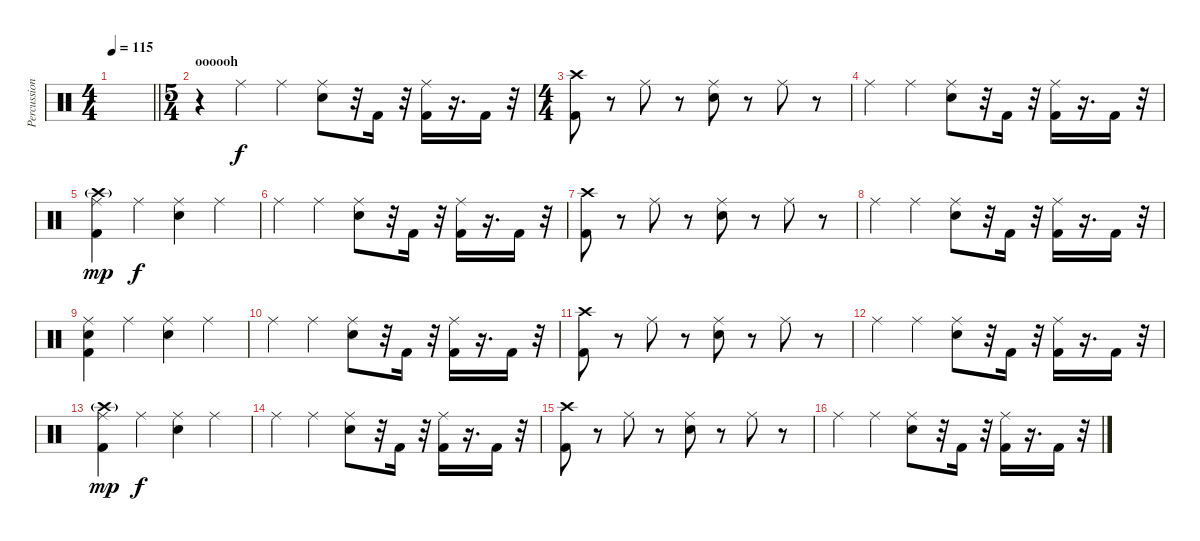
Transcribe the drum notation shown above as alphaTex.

\track ("Percussion" "Percussion") {instrument percussion}
\staff {score}
\articulation defaults
\ts (4 4)
\tempo 115
\clef neutral
\barLineRight lightlight
\ks c
|
\ts (5 4)
\section ("" "oooooh")
r.4{volume 1} "Ride (middle)".4{volume 13} "Ride (middle)".4 ("Ride (middle)" "Electric Snare (hit)").8 r.32 "Kick (hit) 2".16 r.32 ("Ride (middle)" "Kick (hit) 2").16 r.16{d} "Kick (hit) 2".16 r.32 |
\ts (4 4)
("Crash high (hit)" "Kick (hit) 2").8{volume 12} r.8 "Ride (middle)".8 r.8 ("Ride (middle)" "Electric Snare (hit)").8 r.8 "Ride (middle)".8 r.8 |
"Ride (middle)".4 "Ride (middle)".4 ("Ride (middle)" "Electric Snare (hit)").8 r.32 "Kick (hit) 2".16 r.32 ("Ride (middle)" "Kick (hit) 2").16 r.16{d} "Kick (hit) 2".16 r.32 |
("Ride (middle)" "Crash high (hit)"{g} "Kick (hit) 2").4{dy mp} "Ride (middle)".4{dy f} ("Ride (middle)" "Electric Snare (hit)").4 "Ride (middle)".4 |
"Ride (middle)".4 "Ride (middle)".4 ("Ride (middle)" "Electric Snare (hit)").8 r.32 "Kick (hit) 2".16 r.32 ("Ride (middle)" "Kick (hit) 2").16 r.16{d} "Kick (hit) 2".16 r.32 |
("Crash high (hit)" "Kick (hit) 2").8 r.8 "Ride (middle)".8 r.8 ("Ride (middle)" "Electric Snare (hit)").8 r.8 "Ride (middle)".8 r.8 |
"Ride (middle)".4 "Ride (middle)".4 ("Ride (middle)" "Electric Snare (hit)").8 r.32 "Kick (hit) 2".16 r.32 ("Ride (middle)" "Kick (hit) 2").16 r.16{d} "Kick (hit) 2".16 r.32 |
("Ride (middle)" "Electric Snare (hit)" "Kick (hit) 2").4 "Ride (middle)".4 ("Ride (middle)" "Electric Snare (hit)").4 "Ride (middle)".4 |
"Ride (middle)".4 "Ride (middle)".4 ("Ride (middle)" "Electric Snare (hit)").8 r.32 "Kick (hit) 2".16 r.32 ("Ride (middle)" "Kick (hit) 2").16 r.16{d} "Kick (hit) 2".16 r.32 |
("Crash high (hit)" "Kick (hit) 2").8{volume 12} r.8 "Ride (middle)".8 r.8 ("Ride (middle)" "Electric Snare (hit)").8 r.8 "Ride (middle)".8 r.8 |
"Ride (middle)".4 "Ride (middle)".4 ("Ride (middle)" "Electric Snare (hit)").8 r.32 "Kick (hit) 2".16 r.32 ("Ride (middle)" "Kick (hit) 2").16 r.16{d} "Kick (hit) 2".16 r.32 |
("Ride (middle)" "Crash high (hit)"{g} "Kick (hit) 2").4{dy mp} "Ride (middle)".4{dy f} ("Ride (middle)" "Electric Snare (hit)").4 "Ride (middle)".4 |
"Ride (middle)".4 "Ride (middle)".4 ("Ride (middle)" "Electric Snare (hit)").8 r.32 "Kick (hit) 2".16 r.32 ("Ride (middle)" "Kick (hit) 2").16 r.16{d} "Kick (hit) 2".16 r.32 |
("Crash high (hit)" "Kick (hit) 2").8 r.8 "Ride (middle)".8 r.8 ("Ride (middle)" "Electric Snare (hit)").8 r.8 "Ride (middle)".8 r.8 |
"Ride (middle)".4 "Ride (middle)".4 ("Ride (middle)" "Electric Snare (hit)").8 r.32 "Kick (hit) 2".16 r.32 ("Ride (middle)" "Kick (hit) 2").16 r.16{d} "Kick (hit) 2".16 r.32
